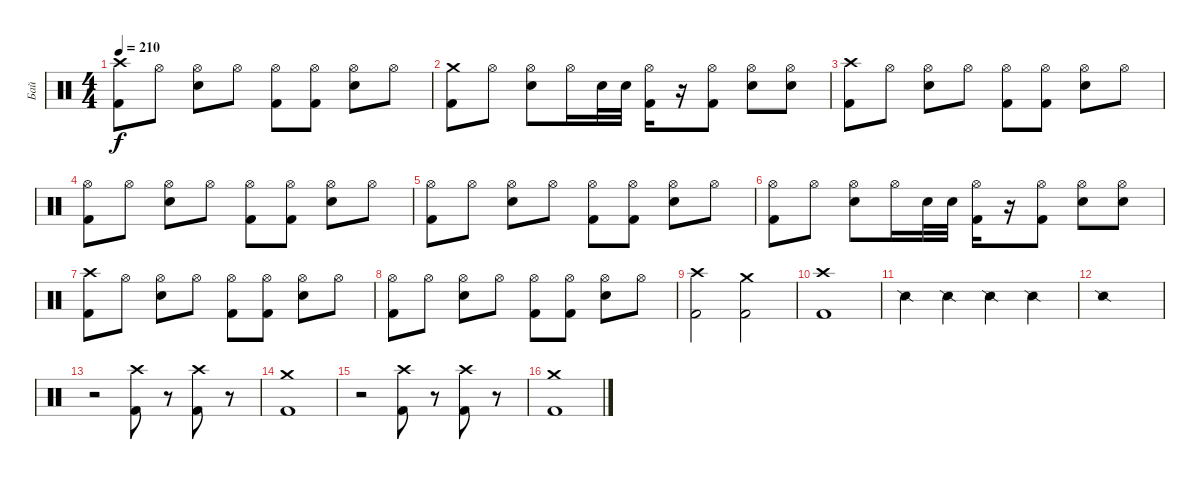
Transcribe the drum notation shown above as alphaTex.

\track ("Бай" "Бай") {instrument percussion}
\staff {score}
\articulation defaults
\ts (4 4)
\tempo 210
\clef neutral
\ks c
("Kick (hit) 2" "Crash high (hit)").8{dy f} "Hi-Hat (open)".8 ("Electric Snare (hit)" "Hi-Hat (open)").8 "Hi-Hat (open)".8 ("Kick (hit) 2" "Hi-Hat (open)").8 ("Kick (hit) 2" "Hi-Hat (open)").8 ("Electric Snare (hit)" "Hi-Hat (open)").8 "Hi-Hat (open)".8 |
("Kick (hit) 2" "Crash medium (hit)").8 "Hi-Hat (open)".8 ("Electric Snare (hit)" "Hi-Hat (open)").8 "Hi-Hat (open)".16 "Electric Snare (hit)".32 "Electric Snare (hit)".32 ("Kick (hit) 2" "Hi-Hat (open)").16 r.16 ("Kick (hit) 2" "Hi-Hat (open)").8 ("Electric Snare (hit)" "Hi-Hat (open)").8 ("Electric Snare (hit)" "Hi-Hat (open)").8 |
("Kick (hit) 2" "Crash high (hit)").8 "Hi-Hat (open)".8 ("Electric Snare (hit)" "Hi-Hat (open)").8 "Hi-Hat (open)".8 ("Kick (hit) 2" "Hi-Hat (open)").8 ("Kick (hit) 2" "Hi-Hat (open)").8 ("Electric Snare (hit)" "Hi-Hat (open)").8 "Hi-Hat (open)".8 |
("Kick (hit) 2" "Hi-Hat (open)").8 "Hi-Hat (open)".8 ("Electric Snare (hit)" "Hi-Hat (open)").8 "Hi-Hat (open)".8 ("Kick (hit) 2" "Hi-Hat (open)").8 ("Kick (hit) 2" "Hi-Hat (open)").8 ("Electric Snare (hit)" "Hi-Hat (open)").8 "Hi-Hat (open)".8 |
("Kick (hit) 2" "Hi-Hat (open)").8 "Hi-Hat (open)".8 ("Electric Snare (hit)" "Hi-Hat (open)").8 "Hi-Hat (open)".8 ("Kick (hit) 2" "Hi-Hat (open)").8 ("Kick (hit) 2" "Hi-Hat (open)").8 ("Electric Snare (hit)" "Hi-Hat (open)").8 "Hi-Hat (open)".8 |
("Kick (hit) 2" "Hi-Hat (open)").8 "Hi-Hat (open)".8 ("Electric Snare (hit)" "Hi-Hat (open)").8 "Hi-Hat (open)".16 "Electric Snare (hit)".32 "Electric Snare (hit)".32 ("Kick (hit) 2" "Hi-Hat (open)").16 r.16 ("Kick (hit) 2" "Hi-Hat (open)").8 ("Electric Snare (hit)" "Hi-Hat (open)").8 ("Electric Snare (hit)" "Hi-Hat (open)").8 |
("Kick (hit) 2" "Crash high (hit)").8 "Hi-Hat (open)".8 ("Electric Snare (hit)" "Hi-Hat (open)").8 "Hi-Hat (open)".8 ("Kick (hit) 2" "Hi-Hat (open)").8 ("Kick (hit) 2" "Hi-Hat (open)").8 ("Electric Snare (hit)" "Hi-Hat (open)").8 "Hi-Hat (open)".8 |
("Kick (hit) 2" "Hi-Hat (open)").8 "Hi-Hat (open)".8 ("Electric Snare (hit)" "Hi-Hat (open)").8 "Hi-Hat (open)".8 ("Kick (hit) 2" "Hi-Hat (open)").8 ("Kick (hit) 2" "Hi-Hat (open)").8 ("Electric Snare (hit)" "Hi-Hat (open)").8 "Hi-Hat (open)".8 |
("Crash high (hit)" "Kick (hit) 2").2 ("Crash medium (hit)" "Kick (hit) 2").2 |
("Crash high (hit)" "Kick (hit) 2").1 |
"Snare (side stick) 2".4 "Snare (side stick) 2".4 "Snare (side stick) 2".4 "Snare (side stick) 2".4 |
"Snare (side stick) 2".1 |
r.2 ("Crash high (hit)" "Kick (hit) 2").8 r.8 ("Crash high (hit)" "Kick (hit) 2").8 r.8 |
("Crash medium (hit)" "Kick (hit) 2").1 |
r.2 ("Crash high (hit)" "Kick (hit) 2").8 r.8 ("Crash high (hit)" "Kick (hit) 2").8 r.8 |
("Crash medium (hit)" "Kick (hit) 2").1
